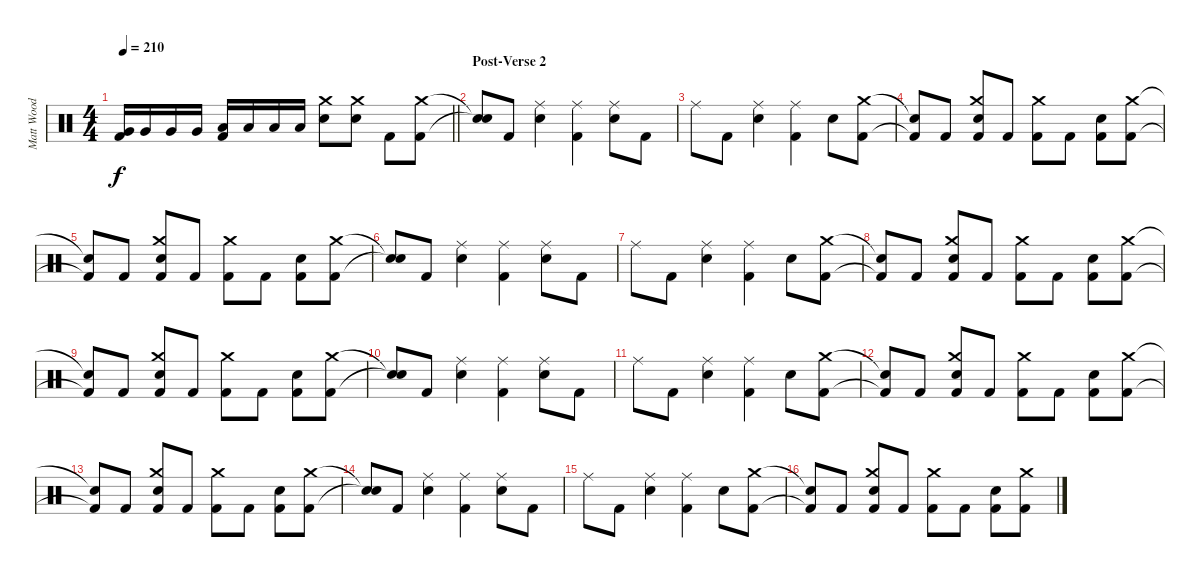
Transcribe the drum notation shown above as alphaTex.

\track ("Matt Wood" "Matt Wood") {instrument percussion}
\staff {score}
\articulation defaults
\ts (4 4)
\tempo 210
\clef neutral
\barLineRight lightlight
\ks c
("Very Low Tom (hit)" "Kick (hit) 2").16{dy f} "Very Low Tom (hit)".16 "Very Low Tom (hit)".16 "Very Low Tom (hit)".16 ("Low Floor Tom (hit)" "Kick (hit) 2").16 "Low Floor Tom (hit)".16 "Low Floor Tom (hit)".16 "Low Floor Tom (hit)".16 ("Crash medium (hit)" "Snare (hit) 2").8 ("Crash medium (hit)" "Snare (hit) 2").8 "Kick (hit) 2".8 ("Crash medium (hit)" "Kick (hit) 2").8 |
\section ("" "Post-Verse 2")
("Snare (hit)"{t} "Snare (hit)"{t}).8 "Kick (hit) 2".8 ("Ride (middle)" "Snare (hit) 2").4 ("Ride (middle)" "Kick (hit) 2").4 ("Ride (middle)" "Snare (hit) 2").8 "Kick (hit) 2".8 |
"Ride (middle)".8 "Kick (hit) 2".8 ("Ride (middle)" "Snare (hit) 2").4 ("Ride (middle)" "Kick (hit) 2").4 "Snare (hit) 2".8 ("Crash medium (hit)" "Kick (hit) 2").8 |
("Snare (hit)"{t} "Kick (hit) 2"{t}).8 "Kick (hit) 2".8 ("Crash medium (hit)" "Snare (hit) 2" "Kick (hit) 2").8 "Kick (hit) 2".8 ("Crash medium (hit)" "Kick (hit) 2").8 "Kick (hit) 2".8 ("Snare (hit) 2" "Kick (hit) 2").8 ("Crash medium (hit)" "Kick (hit) 2").8 |
("Snare (hit)"{t} "Kick (hit) 2"{t}).8 "Kick (hit) 2".8 ("Crash medium (hit)" "Snare (hit) 2" "Kick (hit) 2").8 "Kick (hit) 2".8 ("Crash medium (hit)" "Kick (hit) 2").8 "Kick (hit) 2".8 ("Snare (hit) 2" "Kick (hit) 2").8 ("Crash medium (hit)" "Kick (hit) 2").8 |
("Snare (hit)"{t} "Snare (hit)"{t}).8 "Kick (hit) 2".8 ("Ride (middle)" "Snare (hit) 2").4 ("Ride (middle)" "Kick (hit) 2").4 ("Ride (middle)" "Snare (hit) 2").8 "Kick (hit) 2".8 |
"Ride (middle)".8 "Kick (hit) 2".8 ("Ride (middle)" "Snare (hit) 2").4 ("Ride (middle)" "Kick (hit) 2").4 "Snare (hit) 2".8 ("Crash medium (hit)" "Kick (hit) 2").8 |
("Snare (hit)"{t} "Kick (hit) 2"{t}).8 "Kick (hit) 2".8 ("Crash medium (hit)" "Snare (hit) 2" "Kick (hit) 2").8 "Kick (hit) 2".8 ("Crash medium (hit)" "Kick (hit) 2").8 "Kick (hit) 2".8 ("Snare (hit) 2" "Kick (hit) 2").8 ("Crash medium (hit)" "Kick (hit) 2").8 |
("Snare (hit)"{t} "Kick (hit) 2"{t}).8 "Kick (hit) 2".8 ("Crash medium (hit)" "Snare (hit) 2" "Kick (hit) 2").8 "Kick (hit) 2".8 ("Crash medium (hit)" "Kick (hit) 2").8 "Kick (hit) 2".8 ("Snare (hit) 2" "Kick (hit) 2").8 ("Crash medium (hit)" "Kick (hit) 2").8 |
("Snare (hit)"{t} "Snare (hit)"{t}).8 "Kick (hit) 2".8 ("Ride (middle)" "Snare (hit) 2").4 ("Ride (middle)" "Kick (hit) 2").4 ("Ride (middle)" "Snare (hit) 2").8 "Kick (hit) 2".8 |
"Ride (middle)".8 "Kick (hit) 2".8 ("Ride (middle)" "Snare (hit) 2").4 ("Ride (middle)" "Kick (hit) 2").4 "Snare (hit) 2".8 ("Crash medium (hit)" "Kick (hit) 2").8 |
("Snare (hit)"{t} "Kick (hit) 2"{t}).8 "Kick (hit) 2".8 ("Crash medium (hit)" "Snare (hit) 2" "Kick (hit) 2").8 "Kick (hit) 2".8 ("Crash medium (hit)" "Kick (hit) 2").8 "Kick (hit) 2".8 ("Snare (hit) 2" "Kick (hit) 2").8 ("Crash medium (hit)" "Kick (hit) 2").8 |
("Snare (hit)"{t} "Kick (hit) 2"{t}).8 "Kick (hit) 2".8 ("Crash medium (hit)" "Snare (hit) 2" "Kick (hit) 2").8 "Kick (hit) 2".8 ("Crash medium (hit)" "Kick (hit) 2").8 "Kick (hit) 2".8 ("Snare (hit) 2" "Kick (hit) 2").8 ("Crash medium (hit)" "Kick (hit) 2").8 |
("Snare (hit)"{t} "Snare (hit)"{t}).8 "Kick (hit) 2".8 ("Ride (middle)" "Snare (hit) 2").4 ("Ride (middle)" "Kick (hit) 2").4 ("Ride (middle)" "Snare (hit) 2").8 "Kick (hit) 2".8 |
"Ride (middle)".8 "Kick (hit) 2".8 ("Ride (middle)" "Snare (hit) 2").4 ("Ride (middle)" "Kick (hit) 2").4 "Snare (hit) 2".8 ("Crash medium (hit)" "Kick (hit) 2").8 |
("Snare (hit)"{t} "Kick (hit) 2"{t}).8 "Kick (hit) 2".8 ("Crash medium (hit)" "Snare (hit) 2" "Kick (hit) 2").8 "Kick (hit) 2".8 ("Crash medium (hit)" "Kick (hit) 2").8 "Kick (hit) 2".8 ("Snare (hit) 2" "Kick (hit) 2").8 ("Crash medium (hit)" "Kick (hit) 2").8
